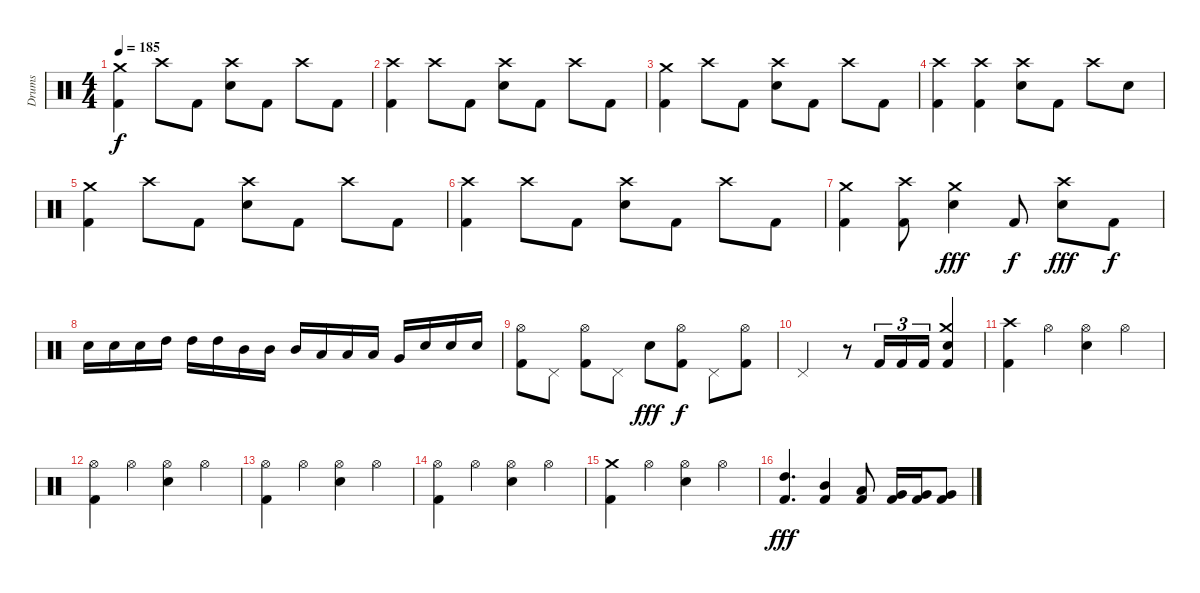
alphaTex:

\track ("Drums" "Drums") {instrument percussion}
\staff {score}
\articulation defaults
\ts (4 4)
\tempo 185
\clef neutral
\ks c
("Kick (hit) 2" "Crash medium (hit)").4{dy f} "Crash high (hit)".8 "Kick (hit) 2".8 ("Electric Snare (hit)" "Crash high (hit)").8 "Kick (hit) 2".8 "Crash high (hit)".8 "Kick (hit) 2".8 |
("Kick (hit) 2" "Crash high (hit)").4 "Crash high (hit)".8 "Kick (hit) 2".8 ("Electric Snare (hit)" "Crash high (hit)").8 "Kick (hit) 2".8 "Crash high (hit)".8 "Kick (hit) 2".8 |
("Kick (hit) 2" "Crash medium (hit)").4 "Crash high (hit)".8 "Kick (hit) 2".8 ("Electric Snare (hit)" "Crash high (hit)").8 "Kick (hit) 2".8 "Crash high (hit)".8 "Kick (hit) 2".8 |
("Kick (hit) 2" "Crash high (hit)").4 ("Kick (hit) 2" "Crash high (hit)").4 ("Electric Snare (hit)" "Crash high (hit)").8 "Kick (hit) 2".8 "Crash high (hit)".8 "Electric Snare (hit)".8 |
("Kick (hit) 2" "Crash medium (hit)").4 "Crash high (hit)".8 "Kick (hit) 2".8 ("Electric Snare (hit)" "Crash high (hit)").8 "Kick (hit) 2".8 "Crash high (hit)".8 "Kick (hit) 2".8 |
("Kick (hit) 2" "Crash high (hit)").4 "Crash high (hit)".8 "Kick (hit) 2".8 ("Electric Snare (hit)" "Crash high (hit)").8 "Kick (hit) 2".8 "Crash high (hit)".8 "Kick (hit) 2".8 |
("Kick (hit) 2" "Crash medium (hit)").4 ("Kick (hit) 2" "Crash high (hit)").8 ("Electric Snare (hit)" "Crash medium (hit)").4{dy fff} "Kick (hit) 2".8{dy f} ("Electric Snare (hit)" "Crash high (hit)").8{dy fff} "Kick (hit) 2".8{dy f} |
"Electric Snare (hit)".16 "Electric Snare (hit)".16 "Electric Snare (hit)".16 "High Tom (hit)".16 "High Tom (hit)".16 "High Tom (hit)".16 "Mid Tom (hit)".16 "Mid Tom (hit)".16 "Mid Tom (hit)".16 "Low Tom (hit)".16 "Low Tom (hit)".16 "Low Tom (hit)".16 "Very Low Tom (hit)".16 "Electric Snare (hit)".16 "Electric Snare (hit)".16 "Electric Snare (hit)".16 |
("Kick (hit) 2" "Hi-Hat (open)").8 "Pedal Hi-Hat (hit)".8 ("Kick (hit) 2" "Hi-Hat (open)").8 "Pedal Hi-Hat (hit)".8 "Electric Snare (hit)".8{dy fff} ("Kick (hit) 2" "Hi-Hat (open)").8{dy f} "Pedal Hi-Hat (hit)".8 ("Kick (hit) 2" "Hi-Hat (open)").8 |
"Pedal Hi-Hat (hit)".2 r.8 "Kick (hit) 2".16{tu (3 2)} "Kick (hit) 2".16{tu (3 2)} "Kick (hit) 2".16{tu (3 2)} ("Kick (hit) 2" "Electric Snare (hit)" "Crash medium (hit)").4 |
("Kick (hit) 2" "Crash high (hit)").4 "Hi-Hat (open)".4 ("Electric Snare (hit)" "Hi-Hat (open)").4 "Hi-Hat (open)".4 |
("Kick (hit) 2" "Hi-Hat (open)").4 "Hi-Hat (open)".4 ("Electric Snare (hit)" "Hi-Hat (open)").4 "Hi-Hat (open)".4 |
("Kick (hit) 2" "Hi-Hat (open)").4 "Hi-Hat (open)".4 ("Electric Snare (hit)" "Hi-Hat (open)").4 "Hi-Hat (open)".4 |
("Kick (hit) 2" "Hi-Hat (open)").4 "Hi-Hat (open)".4 ("Electric Snare (hit)" "Hi-Hat (open)").4 "Hi-Hat (open)".4 |
("Kick (hit) 2" "Crash medium (hit)").4 "Hi-Hat (open)".4 ("Electric Snare (hit)" "Hi-Hat (open)").4 "Hi-Hat (open)".4 |
("Kick (hit) 2" "High Tom (hit)").4{d dy fff} ("Kick (hit) 2" "Mid Tom (hit)").4 ("Kick (hit) 2" "Low Tom (hit)").8 ("Kick (hit) 2" "Very Low Tom (hit)").16 ("Kick (hit) 2" "Very Low Tom (hit)").16 ("Kick (hit) 2" "Very Low Tom (hit)").8
